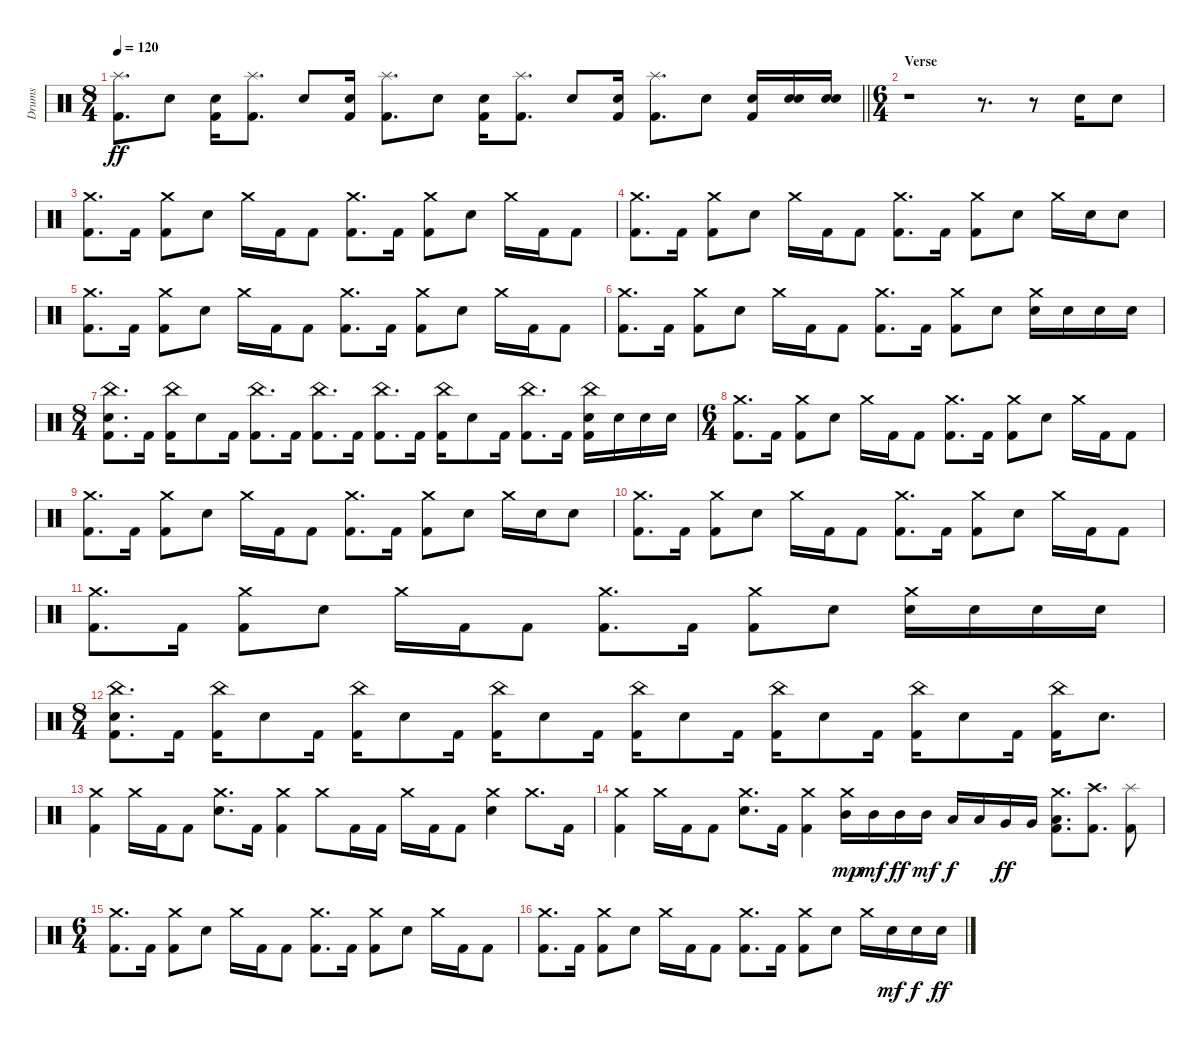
\track ("Drums" "Drums") {instrument percussion}
\staff {score}
\articulation defaults
\ts (8 4)
\tempo 120
\clef neutral
\barLineRight lightlight
\ks c
("Splash (hit)" "Kick (hit) 2").8{d dy ff} "Electric Snare (hit)".8 ("Electric Snare (hit)" "Kick (hit) 2").16 ("Splash (hit)" "Kick (hit) 2").8{d} "Electric Snare (hit)".8 ("Electric Snare (hit)" "Kick (hit) 2").16 ("Splash (hit)" "Kick (hit) 2").8{d} "Electric Snare (hit)".8 ("Electric Snare (hit)" "Kick (hit) 2").16 ("Splash (hit)" "Kick (hit) 2").8{d} "Electric Snare (hit)".8 ("Electric Snare (hit)" "Kick (hit) 2").16 ("Splash (hit)" "Kick (hit) 2").8{d} "Electric Snare (hit)".8 ("Electric Snare (hit)" "Kick (hit) 2").16 ("Electric Snare (hit)" "Electric Snare (hit)").16 ("Electric Snare (hit)" "Electric Snare (hit)").16 |
\ts (6 4)
\section ("" "Verse")
r.1 r.8{d} r.8 "Electric Snare (hit)".16 "Electric Snare (hit)".8 |
("Crash medium (hit)" "Kick (hit) 2").8{d} "Kick (hit) 2".16 ("Crash medium (hit)" "Kick (hit) 2").8 "Electric Snare (hit)".8 "Crash medium (hit)".16 "Kick (hit) 2".16 "Kick (hit) 2".8 ("Crash medium (hit)" "Kick (hit) 2").8{d} "Kick (hit) 2".16 ("Crash medium (hit)" "Kick (hit) 2").8 "Electric Snare (hit)".8 "Crash medium (hit)".16 "Kick (hit) 2".16 "Kick (hit) 2".8 |
("Crash medium (hit)" "Kick (hit) 2").8{d} "Kick (hit) 2".16 ("Crash medium (hit)" "Kick (hit) 2").8 "Electric Snare (hit)".8 "Crash medium (hit)".16 "Kick (hit) 2".16 "Kick (hit) 2".8 ("Crash medium (hit)" "Kick (hit) 2").8{d} "Kick (hit) 2".16 ("Crash medium (hit)" "Kick (hit) 2").8 "Electric Snare (hit)".8 "Crash medium (hit)".16 "Electric Snare (hit)".16 "Electric Snare (hit)".8 |
("Crash medium (hit)" "Kick (hit) 2").8{d} "Kick (hit) 2".16 ("Crash medium (hit)" "Kick (hit) 2").8 "Electric Snare (hit)".8 "Crash medium (hit)".16 "Kick (hit) 2".16 "Kick (hit) 2".8 ("Crash medium (hit)" "Kick (hit) 2").8{d} "Kick (hit) 2".16 ("Crash medium (hit)" "Kick (hit) 2").8 "Electric Snare (hit)".8 "Crash medium (hit)".16 "Kick (hit) 2".16 "Kick (hit) 2".8 |
("Crash medium (hit)" "Kick (hit) 2").8{d} "Kick (hit) 2".16 ("Crash medium (hit)" "Kick (hit) 2").8 "Electric Snare (hit)".8 "Crash medium (hit)".16 "Kick (hit) 2".16 "Kick (hit) 2".8 ("Crash medium (hit)" "Kick (hit) 2").8{d} "Kick (hit) 2".16 ("Crash medium (hit)" "Kick (hit) 2").8 "Electric Snare (hit)".8 ("Crash medium (hit)" "Electric Snare (hit)").16 "Electric Snare (hit)".16 "Electric Snare (hit)".16 "Electric Snare (hit)".16 |
\ts (8 4)
("China (hit)" "Electric Snare (hit)" "Kick (hit) 2").8{d} "Kick (hit) 2".16 ("China (hit)" "Kick (hit) 2").16 "Electric Snare (hit)".8 "Kick (hit) 2".16 ("China (hit)" "Kick (hit) 2").8{d} "Kick (hit) 2".16 ("China (hit)" "Kick (hit) 2").8{d} "Kick (hit) 2".16 ("China (hit)" "Kick (hit) 2").8{d} "Kick (hit) 2".16 ("China (hit)" "Kick (hit) 2").16 "Electric Snare (hit)".8 "Kick (hit) 2".16 ("China (hit)" "Kick (hit) 2").8{d} "Kick (hit) 2".16 ("China (hit)" "Electric Snare (hit)" "Kick (hit) 2").16 "Electric Snare (hit)".16 "Electric Snare (hit)".16 "Electric Snare (hit)".16 |
\ts (6 4)
("Crash medium (hit)" "Kick (hit) 2").8{d} "Kick (hit) 2".16 ("Crash medium (hit)" "Kick (hit) 2").8 "Electric Snare (hit)".8 "Crash medium (hit)".16 "Kick (hit) 2".16 "Kick (hit) 2".8 ("Crash medium (hit)" "Kick (hit) 2").8{d} "Kick (hit) 2".16 ("Crash medium (hit)" "Kick (hit) 2").8 "Electric Snare (hit)".8 "Crash medium (hit)".16 "Kick (hit) 2".16 "Kick (hit) 2".8 |
("Crash medium (hit)" "Kick (hit) 2").8{d} "Kick (hit) 2".16 ("Crash medium (hit)" "Kick (hit) 2").8 "Electric Snare (hit)".8 "Crash medium (hit)".16 "Kick (hit) 2".16 "Kick (hit) 2".8 ("Crash medium (hit)" "Kick (hit) 2").8{d} "Kick (hit) 2".16 ("Crash medium (hit)" "Kick (hit) 2").8 "Electric Snare (hit)".8 "Crash medium (hit)".16 "Electric Snare (hit)".16 "Electric Snare (hit)".8 |
("Crash medium (hit)" "Kick (hit) 2").8{d} "Kick (hit) 2".16 ("Crash medium (hit)" "Kick (hit) 2").8 "Electric Snare (hit)".8 "Crash medium (hit)".16 "Kick (hit) 2".16 "Kick (hit) 2".8 ("Crash medium (hit)" "Kick (hit) 2").8{d} "Kick (hit) 2".16 ("Crash medium (hit)" "Kick (hit) 2").8 "Electric Snare (hit)".8 "Crash medium (hit)".16 "Kick (hit) 2".16 "Kick (hit) 2".8 |
("Crash medium (hit)" "Kick (hit) 2").8{d} "Kick (hit) 2".16 ("Crash medium (hit)" "Kick (hit) 2").8 "Electric Snare (hit)".8 "Crash medium (hit)".16 "Kick (hit) 2".16 "Kick (hit) 2".8 ("Crash medium (hit)" "Kick (hit) 2").8{d} "Kick (hit) 2".16 ("Crash medium (hit)" "Kick (hit) 2").8 "Electric Snare (hit)".8 ("Crash medium (hit)" "Electric Snare (hit)").16 "Electric Snare (hit)".16 "Electric Snare (hit)".16 "Electric Snare (hit)".16 |
\ts (8 4)
("China (hit)" "Electric Snare (hit)" "Kick (hit) 2").8{d} "Kick (hit) 2".16 ("China (hit)" "Kick (hit) 2").16 "Electric Snare (hit)".8 "Kick (hit) 2".16 ("China (hit)" "Kick (hit) 2").16 "Electric Snare (hit)".8 "Kick (hit) 2".16 ("China (hit)" "Kick (hit) 2").16 "Electric Snare (hit)".8 "Kick (hit) 2".16 ("China (hit)" "Kick (hit) 2").16 "Electric Snare (hit)".8 "Kick (hit) 2".16 ("China (hit)" "Kick (hit) 2").16 "Electric Snare (hit)".8 "Kick (hit) 2".16 ("China (hit)" "Kick (hit) 2").16 "Electric Snare (hit)".8 "Kick (hit) 2".16 ("China (hit)" "Kick (hit) 2").16 "Electric Snare (hit)".8{d} |
("Crash medium (hit)" "Kick (hit) 2").4 "Crash medium (hit)".16 "Kick (hit) 2".16 "Kick (hit) 2".8 ("Crash medium (hit)" "Electric Snare (hit)").8{d} "Kick (hit) 2".16 ("Crash medium (hit)" "Kick (hit) 2").4 "Crash medium (hit)".8 "Kick (hit) 2".16 "Kick (hit) 2".16 "Crash medium (hit)".16 "Kick (hit) 2".16 "Kick (hit) 2".8 ("Crash medium (hit)" "Electric Snare (hit)").4 "Crash medium (hit)".8{d} "Kick (hit) 2".16 |
("Crash medium (hit)" "Kick (hit) 2").4 "Crash medium (hit)".16 "Kick (hit) 2".16 "Kick (hit) 2".8 ("Crash medium (hit)" "Electric Snare (hit)").8{d} "Kick (hit) 2".16 ("Crash medium (hit)" "Kick (hit) 2").4 ("Crash medium (hit)" "Mid Tom (hit)").16{dy mp} "Mid Tom (hit)".16{dy mf} "Mid Tom (hit)".16{dy ff} "Mid Tom (hit)".16{dy mf} "Low Tom (hit)".16{dy f} "Low Tom (hit)".16 "Very Low Tom (hit)".16{dy ff} "Very Low Tom (hit)".16 ("Crash medium (hit)" "Low Floor Tom (hit)" "Kick (hit) 2").8{d} ("Crash high (hit)" "Kick (hit) 2").8{d} ("Splash (hit)" "Kick (hit) 2").8 |
\ts (6 4)
("Crash medium (hit)" "Kick (hit) 2").8{d} "Kick (hit) 2".16 ("Crash medium (hit)" "Kick (hit) 2").8 "Electric Snare (hit)".8 "Crash medium (hit)".16 "Kick (hit) 2".16 "Kick (hit) 2".8 ("Crash medium (hit)" "Kick (hit) 2").8{d} "Kick (hit) 2".16 ("Crash medium (hit)" "Kick (hit) 2").8 "Electric Snare (hit)".8 "Crash medium (hit)".16 "Kick (hit) 2".16 "Kick (hit) 2".8 |
("Crash medium (hit)" "Kick (hit) 2").8{d} "Kick (hit) 2".16 ("Crash medium (hit)" "Kick (hit) 2").8 "Electric Snare (hit)".8 "Crash medium (hit)".16 "Kick (hit) 2".16 "Kick (hit) 2".8 ("Crash medium (hit)" "Kick (hit) 2").8{d} "Kick (hit) 2".16 ("Crash medium (hit)" "Kick (hit) 2").8 "Electric Snare (hit)".8 "Crash medium (hit)".16 "Electric Snare (hit)".16{dy mf} "Electric Snare (hit)".16{dy f} "Electric Snare (hit)".16{dy ff}
